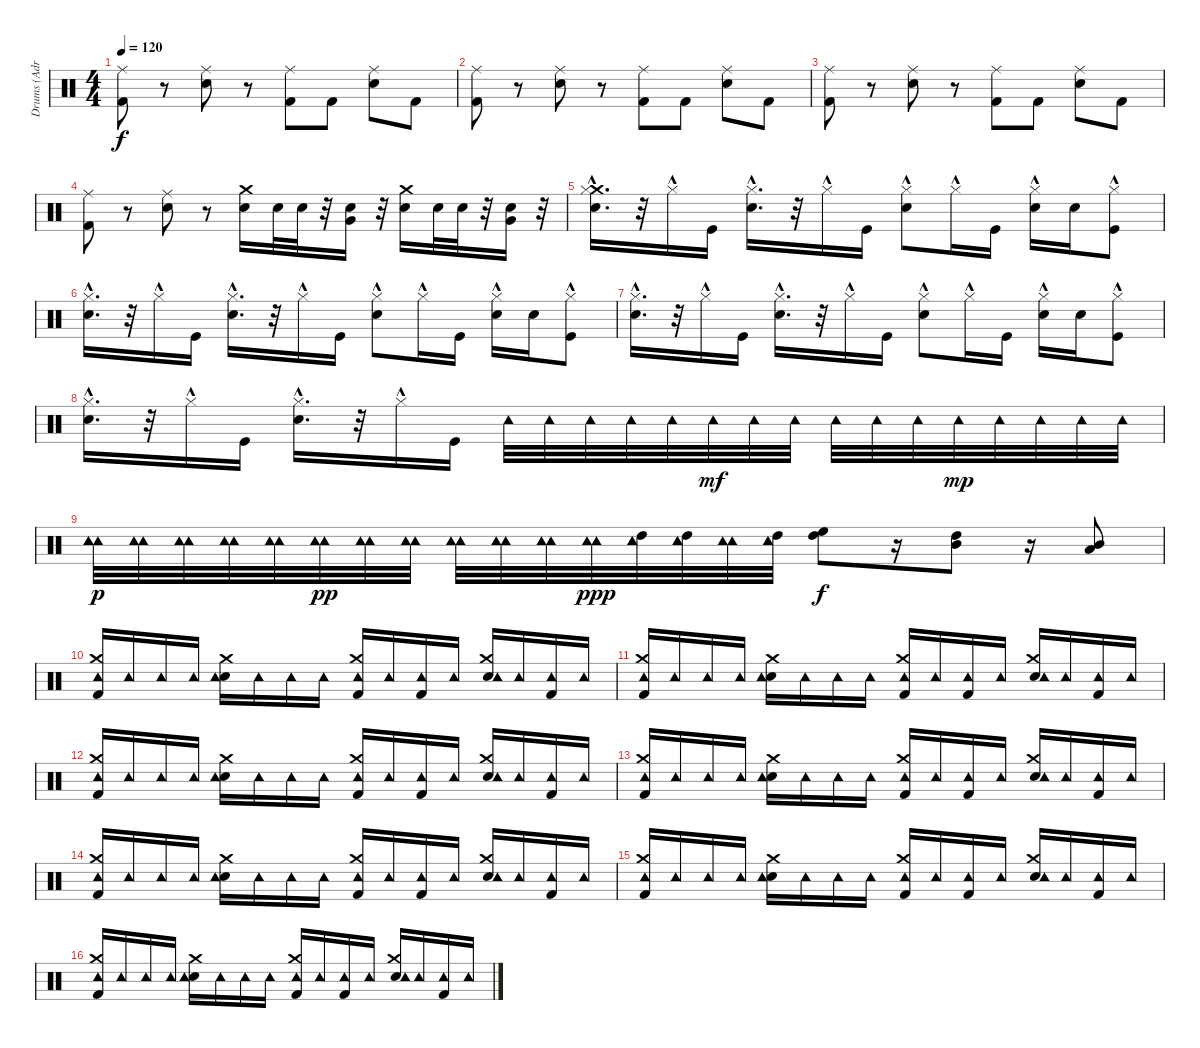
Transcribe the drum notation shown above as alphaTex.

\track ("Drums (Adrian Young)" "Drums (Adr") {instrument percussion}
\staff {score}
\articulation defaults
\ts (4 4)
\tempo 120
\clef neutral
\ks c
("Kick (hit) 2" "Ride (middle)").8{dy f} r.8 ("Snare (hit) 2" "Ride (middle)").8 r.8 ("Kick (hit) 2" "Ride (middle)").8 "Kick (hit) 2".8 ("Snare (hit) 2" "Ride (middle)").8 "Kick (hit) 2".8 |
("Kick (hit) 2" "Ride (middle)").8 r.8 ("Snare (hit) 2" "Ride (middle)").8 r.8 ("Kick (hit) 2" "Ride (middle)").8 "Kick (hit) 2".8 ("Snare (hit) 2" "Ride (middle)").8 "Kick (hit) 2".8 |
("Kick (hit) 2" "Ride (middle)").8 r.8 ("Snare (hit) 2" "Ride (middle)").8 r.8 ("Kick (hit) 2" "Ride (middle)").8 "Kick (hit) 2".8 ("Snare (hit) 2" "Ride (middle)").8 "Kick (hit) 2".8 |
("Kick (hit) 2" "Ride (middle)").8 r.8 ("Snare (hit) 2" "Ride (middle)").8 r.8 ("Crash medium (hit)" "Snare (hit) 2").16 "Snare (hit) 2".32 "Snare (hit) 2".32 r.32 ("Snare (hit) 2" "Very Low Tom (hit)").16 r.32 ("Crash medium (hit)" "Snare (hit) 2").16 "Snare (hit) 2".32 "Snare (hit) 2".32 r.32 ("Snare (hit) 2" "Very Low Tom (hit)").16 r.32 |
("Crash medium (hit)"{hac} "Hi-Hat (closed)"{hac} "Electric Snare (hit)"{hac}).16{d} r.32 "Hi-Hat (closed)"{hac}.16 "Kick (hit)".16 ("Hi-Hat (closed)"{hac} "Electric Snare (hit)"{hac}).16{d} r.32 "Hi-Hat (closed)"{hac}.16 "Kick (hit)".16 ("Hi-Hat (closed)"{hac} "Electric Snare (hit)").8 "Hi-Hat (closed)"{hac}.16 "Kick (hit)".16 ("Hi-Hat (closed)"{hac} "Electric Snare (hit)").16 "Electric Snare (hit)".16 ("Hi-Hat (closed)"{hac} "Kick (hit)").8 |
("Hi-Hat (closed)"{hac} "Electric Snare (hit)"{hac}).16{d} r.32 "Hi-Hat (closed)"{hac}.16 "Kick (hit)".16 ("Hi-Hat (closed)"{hac} "Electric Snare (hit)"{hac}).16{d} r.32 "Hi-Hat (closed)"{hac}.16 "Kick (hit)".16 ("Hi-Hat (closed)"{hac} "Electric Snare (hit)").8 "Hi-Hat (closed)"{hac}.16 "Kick (hit)".16 ("Hi-Hat (closed)"{hac} "Electric Snare (hit)").16 "Electric Snare (hit)".16 ("Hi-Hat (closed)"{hac} "Kick (hit)").8 |
("Hi-Hat (closed)"{hac} "Electric Snare (hit)"{hac}).16{d} r.32 "Hi-Hat (closed)"{hac}.16 "Kick (hit)".16 ("Hi-Hat (closed)"{hac} "Electric Snare (hit)"{hac}).16{d} r.32 "Hi-Hat (closed)"{hac}.16 "Kick (hit)".16 ("Hi-Hat (closed)"{hac} "Electric Snare (hit)").8 "Hi-Hat (closed)"{hac}.16 "Kick (hit)".16 ("Hi-Hat (closed)"{hac} "Electric Snare (hit)").16 "Electric Snare (hit)".16 ("Hi-Hat (closed)"{hac} "Kick (hit)").8 |
("Hi-Hat (closed)"{hac} "Electric Snare (hit)"{hac}).16{d} r.32 "Hi-Hat (closed)"{hac}.16 "Kick (hit)".16 ("Hi-Hat (closed)"{hac} "Electric Snare (hit)"{hac}).16{d} r.32 "Hi-Hat (closed)"{hac}.16 "Kick (hit)".16 "Tambourine (hit)".32 "Tambourine (hit)".32 "Tambourine (hit)".32 "Tambourine (hit)".32 "Tambourine (hit)".32 "Tambourine (hit)".32{dy mf} "Tambourine (hit)".32 "Tambourine (hit)".32 "Tambourine (hit)".32 "Tambourine (hit)".32 "Tambourine (hit)".32 "Tambourine (hit)".32{dy mp} "Tambourine (hit)".32 "Tambourine (hit)".32 "Tambourine (hit)".32 "Tambourine (hit)".32 |
("Tambourine (hit)" "Tambourine (hit)" "Tambourine (hit)").32{dy p} ("Tambourine (hit)" "Tambourine (hit)").32 ("Tambourine (hit)" "Tambourine (hit)").32 ("Tambourine (hit)" "Tambourine (hit)").32 ("Tambourine (hit)" "Tambourine (hit)").32 ("Tambourine (hit)" "Tambourine (hit)").32{dy pp} ("Tambourine (hit)" "Tambourine (hit)").32 ("Tambourine (hit)" "Tambourine (hit)").32 ("Tambourine (hit)" "Tambourine (hit)").32 ("Tambourine (hit)" "Tambourine (hit)").32 ("Tambourine (hit)" "Tambourine (hit)").32 ("Tambourine (hit)" "Tambourine (hit)").32{dy ppp} ("Tambourine (hit)" "High Tom (hit)" "Tambourine (hit)").32 ("Tambourine (hit)" "High Tom (hit)" "Tambourine (hit)").32 ("Tambourine (hit)" "Tambourine (hit)").32 ("High Tom (hit)" "Tambourine (hit)" "Tambourine (hit)").32 ("High Floor Tom (hit)" "High Tom (hit)").8{dy f} r.16 ("High Tom (hit)" "Mid Tom (hit)").8 r.16 ("Mid Tom (hit)" "Low Tom (hit)").8 |
("Kick (hit) 2" "Tambourine (hit)" "Crash medium (hit)").16 "Tambourine (hit)".16 "Tambourine (hit)".16 "Tambourine (hit)".16 ("Snare (hit) 2" "Tambourine (hit)" "Crash medium (hit)").16 "Tambourine (hit)".16 "Tambourine (hit)".16 "Tambourine (hit)".16 ("Kick (hit) 2" "Tambourine (hit)" "Crash medium (hit)").16 "Tambourine (hit)".16 ("Kick (hit) 2" "Tambourine (hit)").16 "Tambourine (hit)".16 ("Snare (hit) 2" "Tambourine (hit)" "Crash medium (hit)").16 "Tambourine (hit)".16 ("Kick (hit) 2" "Tambourine (hit)").16 "Tambourine (hit)".16 |
("Kick (hit) 2" "Tambourine (hit)" "Crash medium (hit)").16 "Tambourine (hit)".16 "Tambourine (hit)".16 "Tambourine (hit)".16 ("Snare (hit) 2" "Tambourine (hit)" "Crash medium (hit)").16 "Tambourine (hit)".16 "Tambourine (hit)".16 "Tambourine (hit)".16 ("Kick (hit) 2" "Tambourine (hit)" "Crash medium (hit)").16 "Tambourine (hit)".16 ("Kick (hit) 2" "Tambourine (hit)").16 "Tambourine (hit)".16 ("Snare (hit) 2" "Tambourine (hit)" "Crash medium (hit)").16 "Tambourine (hit)".16 ("Kick (hit) 2" "Tambourine (hit)").16 "Tambourine (hit)".16 |
("Kick (hit) 2" "Tambourine (hit)" "Crash medium (hit)").16 "Tambourine (hit)".16 "Tambourine (hit)".16 "Tambourine (hit)".16 ("Snare (hit) 2" "Tambourine (hit)" "Crash medium (hit)").16 "Tambourine (hit)".16 "Tambourine (hit)".16 "Tambourine (hit)".16 ("Kick (hit) 2" "Tambourine (hit)" "Crash medium (hit)").16 "Tambourine (hit)".16 ("Kick (hit) 2" "Tambourine (hit)").16 "Tambourine (hit)".16 ("Snare (hit) 2" "Tambourine (hit)" "Crash medium (hit)").16 "Tambourine (hit)".16 ("Kick (hit) 2" "Tambourine (hit)").16 "Tambourine (hit)".16 |
("Kick (hit) 2" "Tambourine (hit)" "Crash medium (hit)").16 "Tambourine (hit)".16 "Tambourine (hit)".16 "Tambourine (hit)".16 ("Snare (hit) 2" "Tambourine (hit)" "Crash medium (hit)").16 "Tambourine (hit)".16 "Tambourine (hit)".16 "Tambourine (hit)".16 ("Kick (hit) 2" "Tambourine (hit)" "Crash medium (hit)").16 "Tambourine (hit)".16 ("Kick (hit) 2" "Tambourine (hit)").16 "Tambourine (hit)".16 ("Snare (hit) 2" "Tambourine (hit)" "Crash medium (hit)").16 "Tambourine (hit)".16 ("Kick (hit) 2" "Tambourine (hit)").16 "Tambourine (hit)".16 |
("Kick (hit) 2" "Tambourine (hit)" "Crash medium (hit)").16 "Tambourine (hit)".16 "Tambourine (hit)".16 "Tambourine (hit)".16 ("Snare (hit) 2" "Tambourine (hit)" "Crash medium (hit)").16 "Tambourine (hit)".16 "Tambourine (hit)".16 "Tambourine (hit)".16 ("Kick (hit) 2" "Tambourine (hit)" "Crash medium (hit)").16 "Tambourine (hit)".16 ("Kick (hit) 2" "Tambourine (hit)").16 "Tambourine (hit)".16 ("Snare (hit) 2" "Tambourine (hit)" "Crash medium (hit)").16 "Tambourine (hit)".16 ("Kick (hit) 2" "Tambourine (hit)").16 "Tambourine (hit)".16 |
("Kick (hit) 2" "Tambourine (hit)" "Crash medium (hit)").16 "Tambourine (hit)".16 "Tambourine (hit)".16 "Tambourine (hit)".16 ("Snare (hit) 2" "Tambourine (hit)" "Crash medium (hit)").16 "Tambourine (hit)".16 "Tambourine (hit)".16 "Tambourine (hit)".16 ("Kick (hit) 2" "Tambourine (hit)" "Crash medium (hit)").16 "Tambourine (hit)".16 ("Kick (hit) 2" "Tambourine (hit)").16 "Tambourine (hit)".16 ("Snare (hit) 2" "Tambourine (hit)" "Crash medium (hit)").16 "Tambourine (hit)".16 ("Kick (hit) 2" "Tambourine (hit)").16 "Tambourine (hit)".16 |
("Kick (hit) 2" "Tambourine (hit)" "Crash medium (hit)").16 "Tambourine (hit)".16 "Tambourine (hit)".16 "Tambourine (hit)".16 ("Snare (hit) 2" "Tambourine (hit)" "Crash medium (hit)").16 "Tambourine (hit)".16 "Tambourine (hit)".16 "Tambourine (hit)".16 ("Kick (hit) 2" "Tambourine (hit)" "Crash medium (hit)").16 "Tambourine (hit)".16 ("Kick (hit) 2" "Tambourine (hit)").16 "Tambourine (hit)".16 ("Snare (hit) 2" "Tambourine (hit)" "Crash medium (hit)").16 "Tambourine (hit)".16 ("Kick (hit) 2" "Tambourine (hit)").16 "Tambourine (hit)".16
